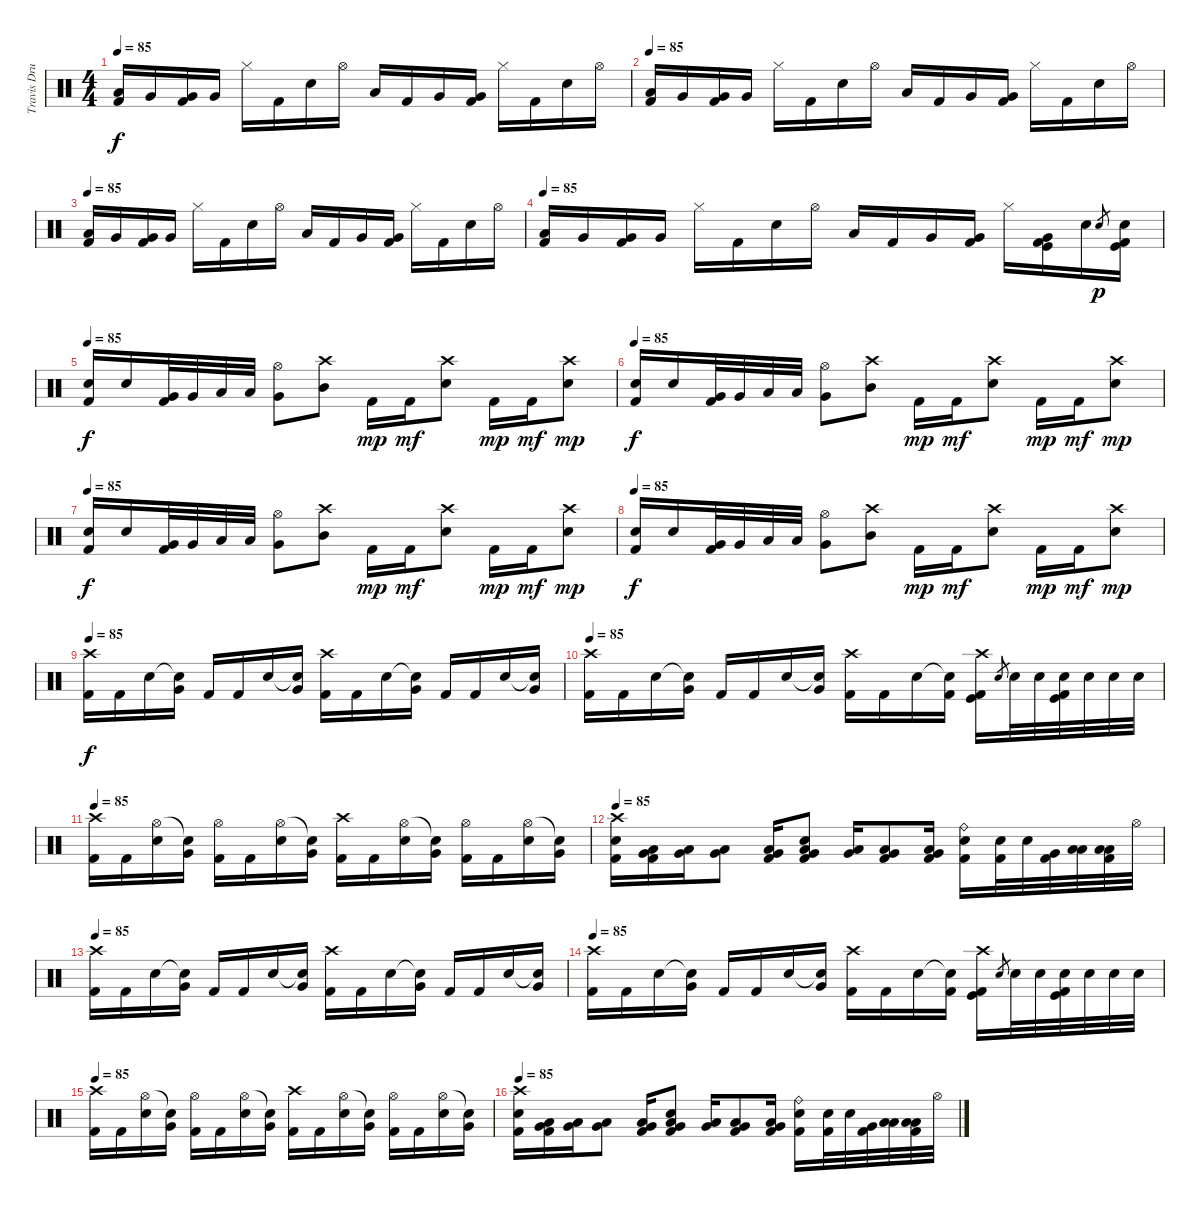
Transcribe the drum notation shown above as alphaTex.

\track ("Travis Drums" "Travis Dru") {instrument percussion}
\staff {score}
\articulation defaults
\ts (4 4)
\tempo 85
\clef neutral
\ks c
("Low Tom (hit)" "Kick (hit) 2").16{dy f} "Very Low Tom (hit)".16 ("Very Low Tom (hit)" "Kick (hit) 2").16 "Very Low Tom (hit)".16 "Hi-Hat (closed)".16 "Kick (hit) 2".16 "Electric Snare (hit)".16 "Hi-Hat (open)".16 "Low Tom (hit)".16 "Kick (hit) 2".16 "Very Low Tom (hit)".16 ("Very Low Tom (hit)" "Kick (hit) 2").16 "Hi-Hat (closed)".16 "Kick (hit) 2".16 "Electric Snare (hit)".16 "Hi-Hat (open)".16 |
\tempo 85
("Low Tom (hit)" "Kick (hit) 2").16 "Very Low Tom (hit)".16 ("Very Low Tom (hit)" "Kick (hit) 2").16 "Very Low Tom (hit)".16 "Hi-Hat (closed)".16 "Kick (hit) 2".16 "Electric Snare (hit)".16 "Hi-Hat (open)".16 "Low Tom (hit)".16 "Kick (hit) 2".16 "Very Low Tom (hit)".16 ("Very Low Tom (hit)" "Kick (hit) 2").16 "Hi-Hat (closed)".16 "Kick (hit) 2".16 "Electric Snare (hit)".16 "Hi-Hat (open)".16 |
\tempo 85
("Low Tom (hit)" "Kick (hit) 2").16 "Very Low Tom (hit)".16 ("Very Low Tom (hit)" "Kick (hit) 2").16 "Very Low Tom (hit)".16 "Hi-Hat (closed)".16 "Kick (hit) 2".16 "Electric Snare (hit)".16 "Hi-Hat (open)".16 "Low Tom (hit)".16 "Kick (hit) 2".16 "Very Low Tom (hit)".16 ("Very Low Tom (hit)" "Kick (hit) 2").16 "Hi-Hat (closed)".16 "Kick (hit) 2".16 "Electric Snare (hit)".16 "Hi-Hat (open)".16 |
\tempo 85
("Low Tom (hit)" "Kick (hit) 2").16 "Very Low Tom (hit)".16 ("Very Low Tom (hit)" "Kick (hit) 2").16 "Very Low Tom (hit)".16 "Hi-Hat (closed)".16 "Kick (hit) 2".16 "Electric Snare (hit)".16 "Hi-Hat (open)".16 "Low Tom (hit)".16 "Kick (hit) 2".16 "Very Low Tom (hit)".16 ("Very Low Tom (hit)" "Kick (hit) 2").16 "Hi-Hat (closed)".16 ("Very Low Tom (hit)" "Kick (hit)" "Kick (hit) 2").16 "Electric Snare (hit)".16 "Snare (hit) 2".8{gr dy p} ("Electric Snare (hit)" "Kick (hit)" "Kick (hit) 2").16 |
\tempo 85
("Electric Snare (hit)" "Kick (hit) 2").16{dy f} "Electric Snare (hit)".16 ("Very Low Tom (hit)" "Kick (hit) 2").32 "Very Low Tom (hit)".32 "Low Floor Tom (hit)".32 "Low Floor Tom (hit)".32 ("Hi-Hat (open)" "Very Low Tom (hit)").8 ("Crash high (hit)" "Mid Tom (hit)").8 "Kick (hit) 2".16{dy mp} "Kick (hit) 2".16{dy mf} ("Crash high (hit)" "Electric Snare (hit)").8 "Kick (hit) 2".16{dy mp} "Kick (hit) 2".16{dy mf} ("Crash high (hit)" "Electric Snare (hit)").8{dy mp} |
\tempo 85
("Electric Snare (hit)" "Kick (hit) 2").16{dy f} "Electric Snare (hit)".16 ("Very Low Tom (hit)" "Kick (hit) 2").32 "Very Low Tom (hit)".32 "Low Floor Tom (hit)".32 "Low Floor Tom (hit)".32 ("Hi-Hat (open)" "Very Low Tom (hit)").8 ("Crash high (hit)" "Mid Tom (hit)").8 "Kick (hit) 2".16{dy mp} "Kick (hit) 2".16{dy mf} ("Crash high (hit)" "Electric Snare (hit)").8 "Kick (hit) 2".16{dy mp} "Kick (hit) 2".16{dy mf} ("Crash high (hit)" "Electric Snare (hit)").8{dy mp} |
\tempo 85
("Electric Snare (hit)" "Kick (hit) 2").16{dy f} "Electric Snare (hit)".16 ("Very Low Tom (hit)" "Kick (hit) 2").32 "Very Low Tom (hit)".32 "Low Floor Tom (hit)".32 "Low Floor Tom (hit)".32 ("Hi-Hat (open)" "Very Low Tom (hit)").8 ("Crash high (hit)" "Mid Tom (hit)").8 "Kick (hit) 2".16{dy mp} "Kick (hit) 2".16{dy mf} ("Crash high (hit)" "Electric Snare (hit)").8 "Kick (hit) 2".16{dy mp} "Kick (hit) 2".16{dy mf} ("Crash high (hit)" "Electric Snare (hit)").8{dy mp} |
\tempo 85
("Electric Snare (hit)" "Kick (hit) 2").16{dy f} "Electric Snare (hit)".16 ("Very Low Tom (hit)" "Kick (hit) 2").32 "Very Low Tom (hit)".32 "Low Floor Tom (hit)".32 "Low Floor Tom (hit)".32 ("Hi-Hat (open)" "Very Low Tom (hit)").8 ("Crash high (hit)" "Mid Tom (hit)").8 "Kick (hit) 2".16{dy mp} "Kick (hit) 2".16{dy mf} ("Crash high (hit)" "Electric Snare (hit)").8 "Kick (hit) 2".16{dy mp} "Kick (hit) 2".16{dy mf} ("Crash high (hit)" "Electric Snare (hit)").8{dy mp} |
\tempo 85
("Crash high (hit)" "Kick (hit) 2").16{dy f} "Kick (hit) 2".16 "Electric Snare (hit)".16 ("Snare (hit)"{t} "Very Low Tom (hit)").16 "Kick (hit) 2".16 "Kick (hit) 2".16 "Electric Snare (hit)".16 ("Snare (hit)"{t} "Very Low Tom (hit)").16 ("Crash high (hit)" "Kick (hit) 2").16 "Kick (hit) 2".16 "Electric Snare (hit)".16 ("Snare (hit)"{t} "Very Low Tom (hit)").16 "Kick (hit) 2".16 "Kick (hit) 2".16 "Electric Snare (hit)".16 ("Snare (hit)"{t} "Very Low Tom (hit)").16 |
\tempo 85
("Crash high (hit)" "Kick (hit) 2").16 "Kick (hit) 2".16 "Electric Snare (hit)".16 ("Snare (hit)"{t} "Very Low Tom (hit)").16 "Kick (hit) 2".16 "Kick (hit) 2".16 "Electric Snare (hit)".16 ("Snare (hit)"{t} "Very Low Tom (hit)").16 ("Crash high (hit)" "Kick (hit) 2").16 "Kick (hit) 2".16 "Electric Snare (hit)".16 ("Snare (hit)"{t} "Kick (hit) 2").16 ("Crash high (hit)" "Kick (hit)" "Kick (hit) 2").16 "Snare (hit) 2".8{gr} "Electric Snare (hit)".32 "Electric Snare (hit)".32 ("Electric Snare (hit)" "Kick (hit)" "Kick (hit) 2").32 "Electric Snare (hit)".32 "Electric Snare (hit)".32 "Electric Snare (hit)".32 |
\tempo 85
("Crash high (hit)" "Kick (hit) 2").16 "Kick (hit) 2".16 ("Hi-Hat (open)" "Electric Snare (hit)").16 ("Snare (hit)"{t} "Very Low Tom (hit)").16 ("Hi-Hat (open)" "Kick (hit) 2").16 "Kick (hit) 2".16 ("Hi-Hat (open)" "Electric Snare (hit)").16 ("Snare (hit)"{t} "Very Low Tom (hit)").16 ("Crash high (hit)" "Kick (hit) 2").16 "Kick (hit) 2".16 ("Hi-Hat (open)" "Electric Snare (hit)").16 ("Snare (hit)"{t} "Very Low Tom (hit)").16 ("Hi-Hat (open)" "Kick (hit) 2").16 "Kick (hit) 2".16 ("Hi-Hat (open)" "Electric Snare (hit)").16 ("Snare (hit)"{t} "Very Low Tom (hit)").16 |
\tempo 85
("Crash high (hit)" "Electric Snare (hit)" "Kick (hit) 2").16 ("Very Low Tom (hit)" "Low Floor Tom (hit)" "Kick (hit) 2").16 ("Very Low Tom (hit)" "Low Floor Tom (hit)").16 ("Very Low Tom (hit)" "Low Floor Tom (hit)").8 ("Very Low Tom (hit)" "Low Floor Tom (hit)" "Kick (hit) 2").16 ("Electric Snare (hit)" "Very Low Tom (hit)" "Low Floor Tom (hit)" "Kick (hit) 2").8 ("Very Low Tom (hit)" "Low Floor Tom (hit)").16 ("Very Low Tom (hit)" "Low Floor Tom (hit)" "Kick (hit) 2").8 ("Very Low Tom (hit)" "Low Floor Tom (hit)" "Kick (hit) 2").16 ("Ride (bell)" "Snare (hit) 2" "Kick (hit) 2").16 ("Electric Snare (hit)" "Kick (hit) 2").32 "Electric Snare (hit)".32 ("Very Low Tom (hit)" "Kick (hit) 2").32 ("Low Floor Tom (hit)" "Low Floor Tom (hit)").32 ("Low Floor Tom (hit)" "Low Floor Tom (hit)" "Kick (hit) 2").32 "Hi-Hat (open)".32 |
\tempo 85
("Crash high (hit)" "Kick (hit) 2").16 "Kick (hit) 2".16 "Electric Snare (hit)".16 ("Snare (hit)"{t} "Very Low Tom (hit)").16 "Kick (hit) 2".16 "Kick (hit) 2".16 "Electric Snare (hit)".16 ("Snare (hit)"{t} "Very Low Tom (hit)").16 ("Crash high (hit)" "Kick (hit) 2").16 "Kick (hit) 2".16 "Electric Snare (hit)".16 ("Snare (hit)"{t} "Very Low Tom (hit)").16 "Kick (hit) 2".16 "Kick (hit) 2".16 "Electric Snare (hit)".16 ("Snare (hit)"{t} "Very Low Tom (hit)").16 |
\tempo 85
("Crash high (hit)" "Kick (hit) 2").16 "Kick (hit) 2".16 "Electric Snare (hit)".16 ("Snare (hit)"{t} "Very Low Tom (hit)").16 "Kick (hit) 2".16 "Kick (hit) 2".16 "Electric Snare (hit)".16 ("Snare (hit)"{t} "Very Low Tom (hit)").16 ("Crash high (hit)" "Kick (hit) 2").16 "Kick (hit) 2".16 "Electric Snare (hit)".16 ("Snare (hit)"{t} "Kick (hit) 2").16 ("Crash high (hit)" "Kick (hit)" "Kick (hit) 2").16 "Snare (hit) 2".8{gr} "Electric Snare (hit)".32 "Electric Snare (hit)".32 ("Electric Snare (hit)" "Kick (hit)" "Kick (hit) 2").32 "Electric Snare (hit)".32 "Electric Snare (hit)".32 "Electric Snare (hit)".32 |
\tempo 85
("Crash high (hit)" "Kick (hit) 2").16 "Kick (hit) 2".16 ("Hi-Hat (open)" "Electric Snare (hit)").16 ("Snare (hit)"{t} "Very Low Tom (hit)").16 ("Hi-Hat (open)" "Kick (hit) 2").16 "Kick (hit) 2".16 ("Hi-Hat (open)" "Electric Snare (hit)").16 ("Snare (hit)"{t} "Very Low Tom (hit)").16 ("Crash high (hit)" "Kick (hit) 2").16 "Kick (hit) 2".16 ("Hi-Hat (open)" "Electric Snare (hit)").16 ("Snare (hit)"{t} "Very Low Tom (hit)").16 ("Hi-Hat (open)" "Kick (hit) 2").16 "Kick (hit) 2".16 ("Hi-Hat (open)" "Electric Snare (hit)").16 ("Snare (hit)"{t} "Very Low Tom (hit)").16 |
\tempo 85
("Crash high (hit)" "Electric Snare (hit)" "Kick (hit) 2").16 ("Very Low Tom (hit)" "Low Floor Tom (hit)" "Kick (hit) 2").16 ("Very Low Tom (hit)" "Low Floor Tom (hit)").16 ("Very Low Tom (hit)" "Low Floor Tom (hit)").8 ("Very Low Tom (hit)" "Low Floor Tom (hit)" "Kick (hit) 2").16 ("Electric Snare (hit)" "Very Low Tom (hit)" "Low Floor Tom (hit)" "Kick (hit) 2").8 ("Very Low Tom (hit)" "Low Floor Tom (hit)").16 ("Very Low Tom (hit)" "Low Floor Tom (hit)" "Kick (hit) 2").8 ("Very Low Tom (hit)" "Low Floor Tom (hit)" "Kick (hit) 2").16 ("Ride (bell)" "Snare (hit) 2" "Kick (hit) 2").16 ("Electric Snare (hit)" "Kick (hit) 2").32 "Electric Snare (hit)".32 ("Very Low Tom (hit)" "Kick (hit) 2").32 ("Low Floor Tom (hit)" "Low Floor Tom (hit)").32 ("Low Floor Tom (hit)" "Low Floor Tom (hit)" "Kick (hit) 2").32 "Hi-Hat (open)".32
